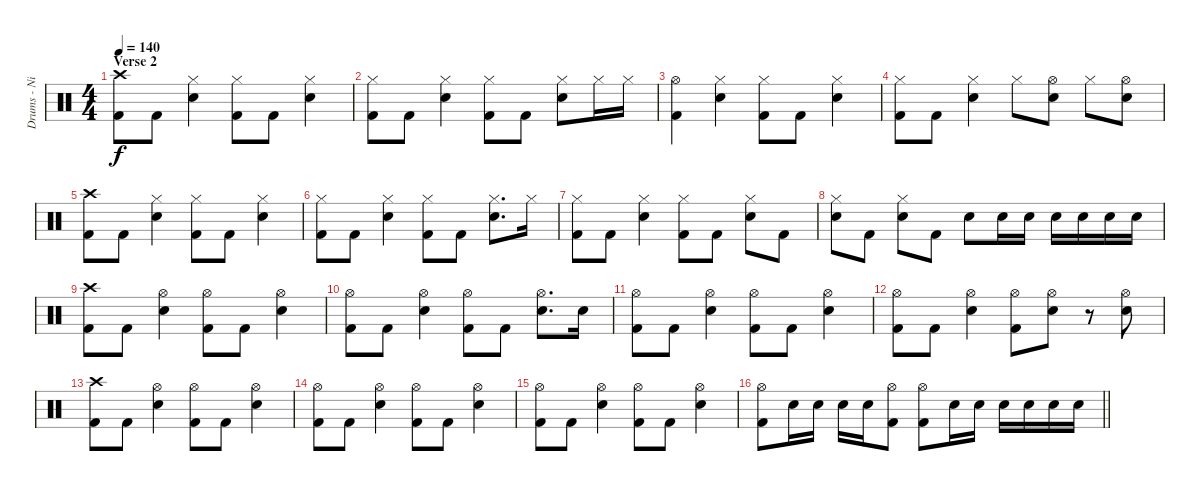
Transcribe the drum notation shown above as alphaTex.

\track ("Drums - Nick" "Drums - Ni") {instrument percussion}
\staff {score}
\articulation defaults
\ts (4 4)
\section ("" "Verse 2")
\tempo 140
\clef neutral
\ks c
("Crash high (hit)" "Kick (hit) 2").8{dy f} "Kick (hit) 2".8 ("Hi-Hat (closed)" "Snare (hit) 2").4 ("Hi-Hat (closed)" "Kick (hit) 2").8 "Kick (hit) 2".8 ("Hi-Hat (closed)" "Snare (hit) 2").4 |
("Hi-Hat (closed)" "Kick (hit) 2").8 "Kick (hit) 2".8 ("Hi-Hat (closed)" "Snare (hit) 2").4 ("Hi-Hat (closed)" "Kick (hit) 2").8 "Kick (hit) 2".8 ("Hi-Hat (closed)" "Snare (hit) 2").8 "Hi-Hat (closed)".16 "Hi-Hat (closed)".16 |
("Hi-Hat (open)" "Kick (hit) 2").4 ("Hi-Hat (closed)" "Snare (hit) 2").4 ("Hi-Hat (closed)" "Kick (hit) 2").8 "Kick (hit) 2".8 ("Hi-Hat (closed)" "Snare (hit) 2").4 |
("Hi-Hat (closed)" "Kick (hit) 2").8 "Kick (hit) 2".8 ("Hi-Hat (closed)" "Snare (hit) 2").4 "Hi-Hat (closed)".8 ("Hi-Hat (open)" "Snare (hit) 2").8 "Hi-Hat (closed)".8 ("Hi-Hat (open)" "Snare (hit) 2").8 |
("Crash high (hit)" "Kick (hit) 2").8 "Kick (hit) 2".8 ("Hi-Hat (closed)" "Snare (hit) 2").4 ("Hi-Hat (closed)" "Kick (hit) 2").8 "Kick (hit) 2".8 ("Hi-Hat (closed)" "Snare (hit) 2").4 |
("Hi-Hat (closed)" "Kick (hit) 2").8 "Kick (hit) 2".8 ("Hi-Hat (closed)" "Snare (hit) 2").4 ("Hi-Hat (closed)" "Kick (hit) 2").8 "Kick (hit) 2".8 ("Hi-Hat (closed)" "Snare (hit) 2").8{d} "Hi-Hat (closed)".16 |
("Hi-Hat (closed)" "Kick (hit) 2").8 "Kick (hit) 2".8 ("Hi-Hat (closed)" "Snare (hit) 2").4 ("Hi-Hat (closed)" "Kick (hit) 2").8 "Kick (hit) 2".8 ("Hi-Hat (closed)" "Snare (hit) 2").8 "Kick (hit) 2".8 |
("Hi-Hat (closed)" "Snare (hit) 2").8 "Kick (hit) 2".8 ("Hi-Hat (closed)" "Snare (hit) 2").8 "Kick (hit) 2".8 "Snare (hit) 2".8 "Snare (hit) 2".16 "Snare (hit) 2".16 "Snare (hit) 2".16 "Snare (hit) 2".16 "Snare (hit) 2".16 "Snare (hit) 2".16 |
("Crash high (hit)" "Kick (hit) 2").8 "Kick (hit) 2".8 ("Hi-Hat (open)" "Snare (hit) 2").4 ("Hi-Hat (open)" "Kick (hit) 2").8 "Kick (hit) 2".8 ("Hi-Hat (open)" "Snare (hit) 2").4 |
("Hi-Hat (open)" "Kick (hit) 2").8 "Kick (hit) 2".8 ("Hi-Hat (open)" "Snare (hit) 2").4 ("Hi-Hat (open)" "Kick (hit) 2").8 "Kick (hit) 2".8 ("Hi-Hat (open)" "Snare (hit) 2").8{d} "Snare (hit) 2".16 |
("Hi-Hat (open)" "Kick (hit) 2").8 "Kick (hit) 2".8 ("Hi-Hat (open)" "Snare (hit) 2").4 ("Hi-Hat (open)" "Kick (hit) 2").8 "Kick (hit) 2".8 ("Hi-Hat (open)" "Snare (hit) 2").4 |
("Hi-Hat (open)" "Kick (hit) 2").8 "Kick (hit) 2".8 ("Hi-Hat (open)" "Snare (hit) 2").4 ("Hi-Hat (open)" "Kick (hit) 2").8 ("Hi-Hat (open)" "Snare (hit) 2").8 r.8 ("Hi-Hat (open)" "Snare (hit) 2").8 |
("Crash high (hit)" "Kick (hit) 2").8 "Kick (hit) 2".8 ("Hi-Hat (open)" "Snare (hit) 2").4 ("Hi-Hat (open)" "Kick (hit) 2").8 "Kick (hit) 2".8 ("Hi-Hat (open)" "Snare (hit) 2").4 |
("Hi-Hat (open)" "Kick (hit) 2").8 "Kick (hit) 2".8 ("Hi-Hat (open)" "Snare (hit) 2").4 ("Hi-Hat (open)" "Kick (hit) 2").8 "Kick (hit) 2".8 ("Hi-Hat (open)" "Snare (hit) 2").4 |
("Hi-Hat (open)" "Kick (hit) 2").8 "Kick (hit) 2".8 ("Hi-Hat (open)" "Snare (hit) 2").4 ("Hi-Hat (open)" "Kick (hit) 2").8 "Kick (hit) 2".8 ("Hi-Hat (open)" "Snare (hit) 2").4 |
\barLineRight lightlight
("Hi-Hat (open)" "Kick (hit) 2").8 "Snare (hit) 2".16 "Snare (hit) 2".16 "Snare (hit) 2".16 "Snare (hit) 2".16 ("Hi-Hat (open)" "Kick (hit) 2").8 ("Hi-Hat (open)" "Kick (hit) 2").8 "Snare (hit) 2".16 "Snare (hit) 2".16 "Snare (hit) 2".16 "Snare (hit) 2".16 "Snare (hit) 2".16 "Snare (hit) 2".16
